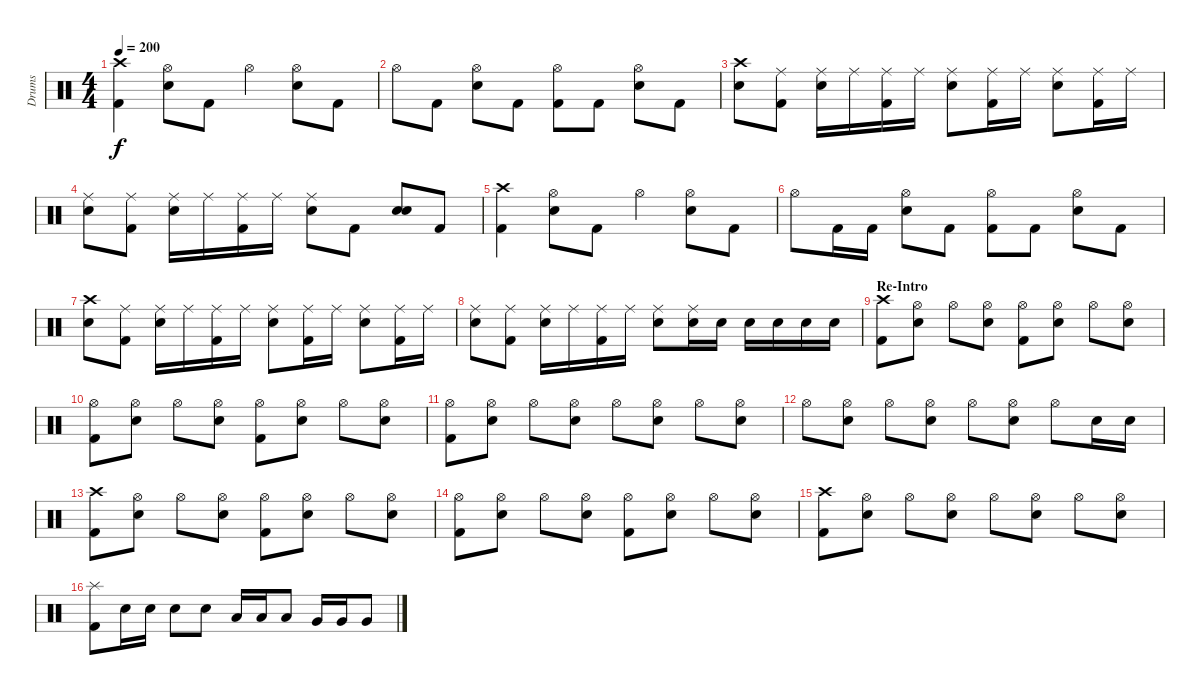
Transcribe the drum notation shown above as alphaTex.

\track ("Drums" "Drums") {instrument percussion}
\staff {score}
\articulation defaults
\ts (4 4)
\tempo 200
\clef neutral
\ks c
("Kick (hit) 2" "Crash high (hit)").4{dy f} ("Electric Snare (hit)" "Hi-Hat (open)").8 "Kick (hit) 2".8 "Hi-Hat (open)".4 ("Electric Snare (hit)" "Hi-Hat (open)").8 "Kick (hit) 2".8 |
"Hi-Hat (open)".8 "Kick (hit) 2".8 ("Electric Snare (hit)" "Hi-Hat (open)").8 "Kick (hit) 2".8 ("Kick (hit) 2" "Hi-Hat (open)").8 "Kick (hit) 2".8 ("Electric Snare (hit)" "Hi-Hat (open)").8 "Kick (hit) 2".8 |
("Electric Snare (hit)" "Crash high (hit)").8 ("Kick (hit) 2" "Ride (middle)").8 ("Electric Snare (hit)" "Ride (middle)").16 "Ride (middle)".16 ("Kick (hit) 2" "Ride (middle)").16 "Ride (middle)".16 ("Electric Snare (hit)" "Ride (middle)").8 ("Kick (hit) 2" "Ride (middle)").16 "Ride (middle)".16 ("Electric Snare (hit)" "Ride (middle)").8 ("Kick (hit) 2" "Ride (middle)").16 "Ride (middle)".16 |
("Electric Snare (hit)" "Ride (middle)").8 ("Kick (hit) 2" "Ride (middle)").8 ("Electric Snare (hit)" "Ride (middle)").16 "Ride (middle)".16 ("Kick (hit) 2" "Ride (middle)").16 "Ride (middle)".16 ("Electric Snare (hit)" "Ride (middle)").8 "Kick (hit) 2".8 ("Electric Snare (hit)" "Electric Snare (hit)").8 "Kick (hit) 2".8 |
("Kick (hit) 2" "Crash high (hit)").4 ("Electric Snare (hit)" "Hi-Hat (open)").8 "Kick (hit) 2".8 "Hi-Hat (open)".4 ("Electric Snare (hit)" "Hi-Hat (open)").8 "Kick (hit) 2".8 |
"Hi-Hat (open)".8 "Kick (hit) 2".16 "Kick (hit) 2".16 ("Electric Snare (hit)" "Hi-Hat (open)").8 "Kick (hit) 2".8 ("Kick (hit) 2" "Hi-Hat (open)").8 "Kick (hit) 2".8 ("Electric Snare (hit)" "Hi-Hat (open)").8 "Kick (hit) 2".8 |
("Electric Snare (hit)" "Crash high (hit)").8 ("Kick (hit) 2" "Ride (middle)").8 ("Electric Snare (hit)" "Ride (middle)").16 "Ride (middle)".16 ("Kick (hit) 2" "Ride (middle)").16 "Ride (middle)".16 ("Electric Snare (hit)" "Ride (middle)").8 ("Kick (hit) 2" "Ride (middle)").16 "Ride (middle)".16 ("Electric Snare (hit)" "Ride (middle)").8 ("Kick (hit) 2" "Ride (middle)").16 "Ride (middle)".16 |
("Electric Snare (hit)" "Ride (middle)").8 ("Kick (hit) 2" "Ride (middle)").8 ("Electric Snare (hit)" "Ride (middle)").16 "Ride (middle)".16 ("Kick (hit) 2" "Ride (middle)").16 "Ride (middle)".16 ("Electric Snare (hit)" "Ride (middle)").8 ("Electric Snare (hit)" "Ride (middle)").16 "Electric Snare (hit)".16 "Electric Snare (hit)".16 "Electric Snare (hit)".16 "Electric Snare (hit)".16 "Electric Snare (hit)".16 |
\section ("" "Re-Intro")
("Crash high (hit)" "Kick (hit) 2").8 ("Hi-Hat (open)" "Electric Snare (hit)").8 "Hi-Hat (open)".8 ("Hi-Hat (open)" "Electric Snare (hit)").8 ("Hi-Hat (open)" "Kick (hit) 2").8 ("Hi-Hat (open)" "Electric Snare (hit)").8 "Hi-Hat (open)".8 ("Hi-Hat (open)" "Electric Snare (hit)").8 |
("Hi-Hat (open)" "Kick (hit) 2").8 ("Hi-Hat (open)" "Electric Snare (hit)").8 "Hi-Hat (open)".8 ("Hi-Hat (open)" "Electric Snare (hit)").8 ("Hi-Hat (open)" "Kick (hit) 2").8 ("Hi-Hat (open)" "Electric Snare (hit)").8 "Hi-Hat (open)".8 ("Hi-Hat (open)" "Electric Snare (hit)").8 |
("Hi-Hat (open)" "Kick (hit) 2").8 ("Hi-Hat (open)" "Electric Snare (hit)").8 "Hi-Hat (open)".8 ("Hi-Hat (open)" "Electric Snare (hit)").8 "Hi-Hat (open)".8 ("Hi-Hat (open)" "Electric Snare (hit)").8 "Hi-Hat (open)".8 ("Hi-Hat (open)" "Electric Snare (hit)").8 |
"Hi-Hat (open)".8 ("Hi-Hat (open)" "Electric Snare (hit)").8 "Hi-Hat (open)".8 ("Hi-Hat (open)" "Electric Snare (hit)").8 "Hi-Hat (open)".8 ("Hi-Hat (open)" "Electric Snare (hit)").8 "Hi-Hat (open)".8 "Electric Snare (hit)".16 "Electric Snare (hit)".16 |
("Crash high (hit)" "Kick (hit) 2").8 ("Hi-Hat (open)" "Electric Snare (hit)").8 "Hi-Hat (open)".8 ("Hi-Hat (open)" "Electric Snare (hit)").8 ("Hi-Hat (open)" "Kick (hit) 2").8 ("Hi-Hat (open)" "Electric Snare (hit)").8 "Hi-Hat (open)".8 ("Hi-Hat (open)" "Electric Snare (hit)").8 |
("Hi-Hat (open)" "Kick (hit) 2").8 ("Hi-Hat (open)" "Electric Snare (hit)").8 "Hi-Hat (open)".8 ("Hi-Hat (open)" "Electric Snare (hit)").8 ("Hi-Hat (open)" "Kick (hit) 2").8 ("Hi-Hat (open)" "Electric Snare (hit)").8 "Hi-Hat (open)".8 ("Hi-Hat (open)" "Electric Snare (hit)").8 |
("Crash high (hit)" "Kick (hit) 2").8 ("Hi-Hat (open)" "Electric Snare (hit)").8 "Hi-Hat (open)".8 ("Hi-Hat (open)" "Electric Snare (hit)").8 "Hi-Hat (open)".8 ("Hi-Hat (open)" "Electric Snare (hit)").8 "Hi-Hat (open)".8 ("Hi-Hat (open)" "Electric Snare (hit)").8 |
("Splash (hit)" "Kick (hit) 2").8 "Electric Snare (hit)".16 "Electric Snare (hit)".16 "Electric Snare (hit)".8 "Electric Snare (hit)".8 "Low Tom (hit)".16 "Low Tom (hit)".16 "Low Tom (hit)".8 "Very Low Tom (hit)".16 "Very Low Tom (hit)".16 "Very Low Tom (hit)".8
